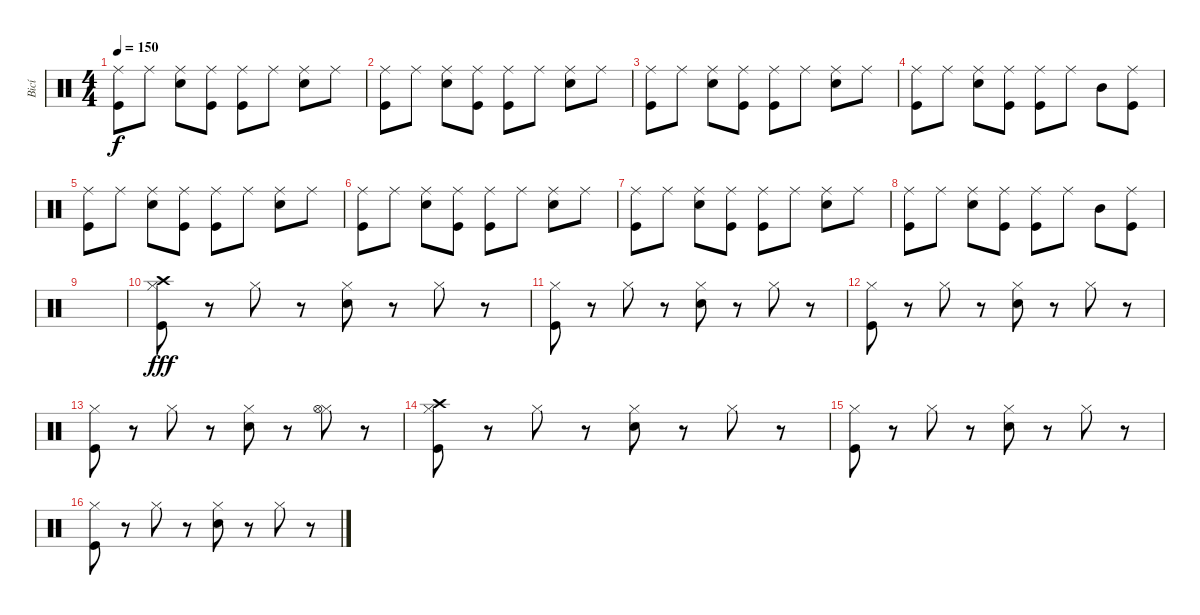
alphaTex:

\track ("Bicí" "Bicí") {instrument percussion}
\staff {score}
\articulation defaults
\ts (4 4)
\tempo 150
\clef neutral
\ks c
("Ride (middle)" "Kick (hit)").8{dy f} "Ride (middle)".8 ("Ride (middle)" "Snare (hit) 2").8 ("Ride (middle)" "Kick (hit)").8 ("Ride (middle)" "Kick (hit)").8 "Ride (middle)".8 ("Ride (middle)" "Snare (hit) 2").8 "Ride (middle)".8 |
("Ride (middle)" "Kick (hit)").8 "Ride (middle)".8 ("Ride (middle)" "Snare (hit) 2").8 ("Ride (middle)" "Kick (hit)").8 ("Ride (middle)" "Kick (hit)").8 "Ride (middle)".8 ("Ride (middle)" "Snare (hit) 2").8 "Ride (middle)".8 |
("Ride (middle)" "Kick (hit)").8 "Ride (middle)".8 ("Ride (middle)" "Snare (hit) 2").8 ("Ride (middle)" "Kick (hit)").8 ("Ride (middle)" "Kick (hit)").8 "Ride (middle)".8 ("Ride (middle)" "Snare (hit) 2").8 "Ride (middle)".8 |
("Ride (middle)" "Kick (hit)").8 "Ride (middle)".8 ("Ride (middle)" "Snare (hit) 2").8 ("Ride (middle)" "Kick (hit)").8 ("Ride (middle)" "Kick (hit)").8 "Ride (middle)".8 "Mid Tom (hit)".8 ("Ride (middle)" "Kick (hit)").8 |
("Ride (middle)" "Kick (hit)").8 "Ride (middle)".8 ("Ride (middle)" "Snare (hit) 2").8 ("Ride (middle)" "Kick (hit)").8 ("Ride (middle)" "Kick (hit)").8 "Ride (middle)".8 ("Ride (middle)" "Snare (hit) 2").8 "Ride (middle)".8 |
("Ride (middle)" "Kick (hit)").8 "Ride (middle)".8 ("Ride (middle)" "Snare (hit) 2").8 ("Ride (middle)" "Kick (hit)").8 ("Ride (middle)" "Kick (hit)").8 "Ride (middle)".8 ("Ride (middle)" "Snare (hit) 2").8 "Ride (middle)".8 |
("Ride (middle)" "Kick (hit)").8 "Ride (middle)".8 ("Ride (middle)" "Snare (hit) 2").8 ("Ride (middle)" "Kick (hit)").8 ("Ride (middle)" "Kick (hit)").8 "Ride (middle)".8 ("Ride (middle)" "Snare (hit) 2").8 "Ride (middle)".8 |
("Ride (middle)" "Kick (hit)").8 "Ride (middle)".8 ("Ride (middle)" "Snare (hit) 2").8 ("Ride (middle)" "Kick (hit)").8 ("Ride (middle)" "Kick (hit)").8 "Ride (middle)".8 "Mid Tom (hit)".8 ("Ride (middle)" "Kick (hit)").8 |
|
("Hi-Hat (closed)" "Crash high (hit)" "Kick (hit)").8{dy fff} r.8 "Hi-Hat (closed)".8 r.8 ("Hi-Hat (closed)" "Snare (hit) 2").8 r.8 "Hi-Hat (closed)".8 r.8 |
("Hi-Hat (closed)" "Kick (hit)").8 r.8 "Hi-Hat (closed)".8 r.8 ("Hi-Hat (closed)" "Snare (hit) 2").8 r.8 "Hi-Hat (closed)".8 r.8 |
("Hi-Hat (closed)" "Kick (hit)").8 r.8 "Hi-Hat (closed)".8 r.8 ("Hi-Hat (closed)" "Snare (hit) 2").8 r.8 "Hi-Hat (closed)".8 r.8 |
("Hi-Hat (closed)" "Kick (hit)").8 r.8 "Hi-Hat (closed)".8 r.8 ("Hi-Hat (closed)" "Snare (hit) 2").8 r.8 ("Hi-Hat (closed)" "Hi-Hat (open)").8 r.8 |
("Hi-Hat (closed)" "Crash high (hit)" "Kick (hit)").8 r.8 "Hi-Hat (closed)".8 r.8 ("Hi-Hat (closed)" "Snare (hit) 2").8 r.8 "Hi-Hat (closed)".8 r.8 |
("Hi-Hat (closed)" "Kick (hit)").8 r.8 "Hi-Hat (closed)".8 r.8 ("Hi-Hat (closed)" "Snare (hit) 2").8 r.8 "Hi-Hat (closed)".8 r.8 |
("Hi-Hat (closed)" "Kick (hit)").8 r.8 "Hi-Hat (closed)".8 r.8 ("Hi-Hat (closed)" "Snare (hit) 2").8 r.8 "Hi-Hat (closed)".8 r.8
